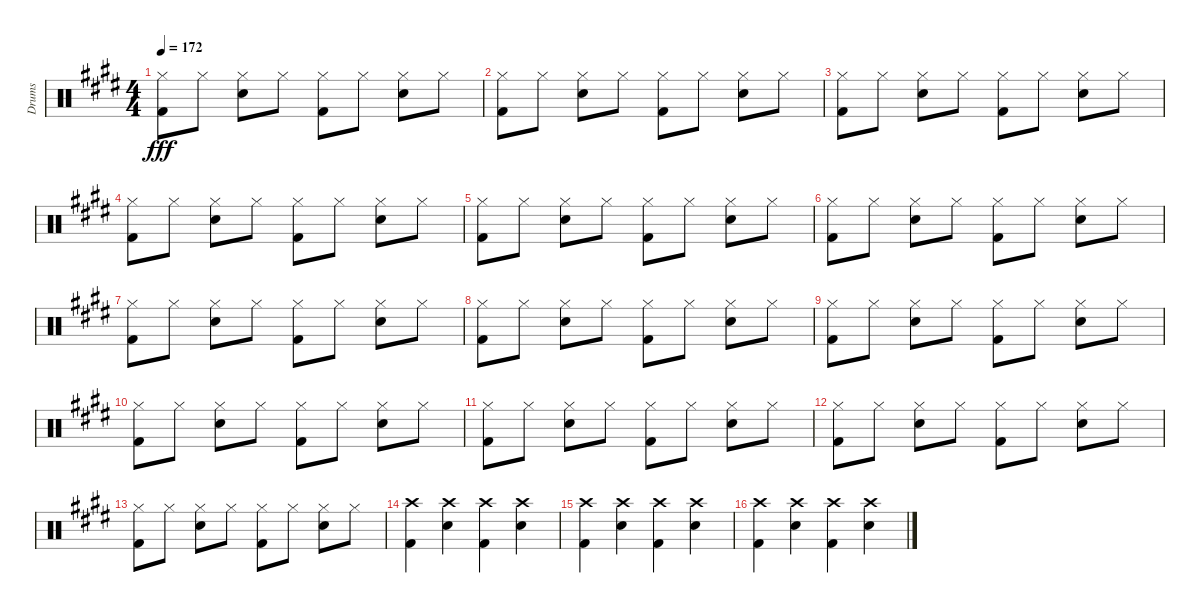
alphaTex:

\track ("Drums" "Drums") {instrument percussion}
\staff {score}
\articulation defaults
\ts (4 4)
\tempo 172
\clef neutral
\ks e
("Hi-Hat (closed)" "Kick (hit) 2").8{dy fff} "Hi-Hat (closed)".8 ("Hi-Hat (closed)" "Electric Snare (hit)").8 "Hi-Hat (closed)".8 ("Hi-Hat (closed)" "Kick (hit) 2").8 "Hi-Hat (closed)".8 ("Hi-Hat (closed)" "Electric Snare (hit)").8 "Hi-Hat (closed)".8 |
("Hi-Hat (closed)" "Kick (hit) 2").8 "Hi-Hat (closed)".8 ("Hi-Hat (closed)" "Electric Snare (hit)").8 "Hi-Hat (closed)".8 ("Hi-Hat (closed)" "Kick (hit) 2").8 "Hi-Hat (closed)".8 ("Hi-Hat (closed)" "Electric Snare (hit)").8 "Hi-Hat (closed)".8 |
("Hi-Hat (closed)" "Kick (hit) 2").8 "Hi-Hat (closed)".8 ("Hi-Hat (closed)" "Electric Snare (hit)").8 "Hi-Hat (closed)".8 ("Hi-Hat (closed)" "Kick (hit) 2").8 "Hi-Hat (closed)".8 ("Hi-Hat (closed)" "Electric Snare (hit)").8 "Hi-Hat (closed)".8 |
("Hi-Hat (closed)" "Kick (hit) 2").8 "Hi-Hat (closed)".8 ("Hi-Hat (closed)" "Electric Snare (hit)").8 "Hi-Hat (closed)".8 ("Hi-Hat (closed)" "Kick (hit) 2").8 "Hi-Hat (closed)".8 ("Hi-Hat (closed)" "Electric Snare (hit)").8 "Hi-Hat (closed)".8 |
("Hi-Hat (closed)" "Kick (hit) 2").8 "Hi-Hat (closed)".8 ("Hi-Hat (closed)" "Electric Snare (hit)").8 "Hi-Hat (closed)".8 ("Hi-Hat (closed)" "Kick (hit) 2").8 "Hi-Hat (closed)".8 ("Hi-Hat (closed)" "Electric Snare (hit)").8 "Hi-Hat (closed)".8 |
("Hi-Hat (closed)" "Kick (hit) 2").8 "Hi-Hat (closed)".8 ("Hi-Hat (closed)" "Electric Snare (hit)").8 "Hi-Hat (closed)".8 ("Hi-Hat (closed)" "Kick (hit) 2").8 "Hi-Hat (closed)".8 ("Hi-Hat (closed)" "Electric Snare (hit)").8 "Hi-Hat (closed)".8 |
("Hi-Hat (closed)" "Kick (hit) 2").8 "Hi-Hat (closed)".8 ("Hi-Hat (closed)" "Electric Snare (hit)").8 "Hi-Hat (closed)".8 ("Hi-Hat (closed)" "Kick (hit) 2").8 "Hi-Hat (closed)".8 ("Hi-Hat (closed)" "Electric Snare (hit)").8 "Hi-Hat (closed)".8 |
("Hi-Hat (closed)" "Kick (hit) 2").8 "Hi-Hat (closed)".8 ("Hi-Hat (closed)" "Electric Snare (hit)").8 "Hi-Hat (closed)".8 ("Hi-Hat (closed)" "Kick (hit) 2").8 "Hi-Hat (closed)".8 ("Hi-Hat (closed)" "Electric Snare (hit)").8 "Hi-Hat (closed)".8 |
("Hi-Hat (closed)" "Kick (hit) 2").8 "Hi-Hat (closed)".8 ("Hi-Hat (closed)" "Electric Snare (hit)").8 "Hi-Hat (closed)".8 ("Hi-Hat (closed)" "Kick (hit) 2").8 "Hi-Hat (closed)".8 ("Hi-Hat (closed)" "Electric Snare (hit)").8 "Hi-Hat (closed)".8 |
("Hi-Hat (closed)" "Kick (hit) 2").8 "Hi-Hat (closed)".8 ("Hi-Hat (closed)" "Electric Snare (hit)").8 "Hi-Hat (closed)".8 ("Hi-Hat (closed)" "Kick (hit) 2").8 "Hi-Hat (closed)".8 ("Hi-Hat (closed)" "Electric Snare (hit)").8 "Hi-Hat (closed)".8 |
("Hi-Hat (closed)" "Kick (hit) 2").8 "Hi-Hat (closed)".8 ("Hi-Hat (closed)" "Electric Snare (hit)").8 "Hi-Hat (closed)".8 ("Hi-Hat (closed)" "Kick (hit) 2").8 "Hi-Hat (closed)".8 ("Hi-Hat (closed)" "Electric Snare (hit)").8 "Hi-Hat (closed)".8 |
("Hi-Hat (closed)" "Kick (hit) 2").8 "Hi-Hat (closed)".8 ("Hi-Hat (closed)" "Electric Snare (hit)").8 "Hi-Hat (closed)".8 ("Hi-Hat (closed)" "Kick (hit) 2").8 "Hi-Hat (closed)".8 ("Hi-Hat (closed)" "Electric Snare (hit)").8 "Hi-Hat (closed)".8 |
("Hi-Hat (closed)" "Kick (hit) 2").8 "Hi-Hat (closed)".8 ("Hi-Hat (closed)" "Electric Snare (hit)").8 "Hi-Hat (closed)".8 ("Hi-Hat (closed)" "Kick (hit) 2").8 "Hi-Hat (closed)".8 ("Hi-Hat (closed)" "Electric Snare (hit)").8 "Hi-Hat (closed)".8 |
("Crash high (hit)" "Kick (hit) 2").4 ("Crash high (hit)" "Electric Snare (hit)").4 ("Crash high (hit)" "Kick (hit) 2").4 ("Crash high (hit)" "Electric Snare (hit)").4 |
("Crash high (hit)" "Kick (hit) 2").4 ("Crash high (hit)" "Electric Snare (hit)").4 ("Crash high (hit)" "Kick (hit) 2").4 ("Crash high (hit)" "Electric Snare (hit)").4 |
("Crash high (hit)" "Kick (hit) 2").4 ("Crash high (hit)" "Electric Snare (hit)").4 ("Crash high (hit)" "Kick (hit) 2").4 ("Crash high (hit)" "Electric Snare (hit)").4
